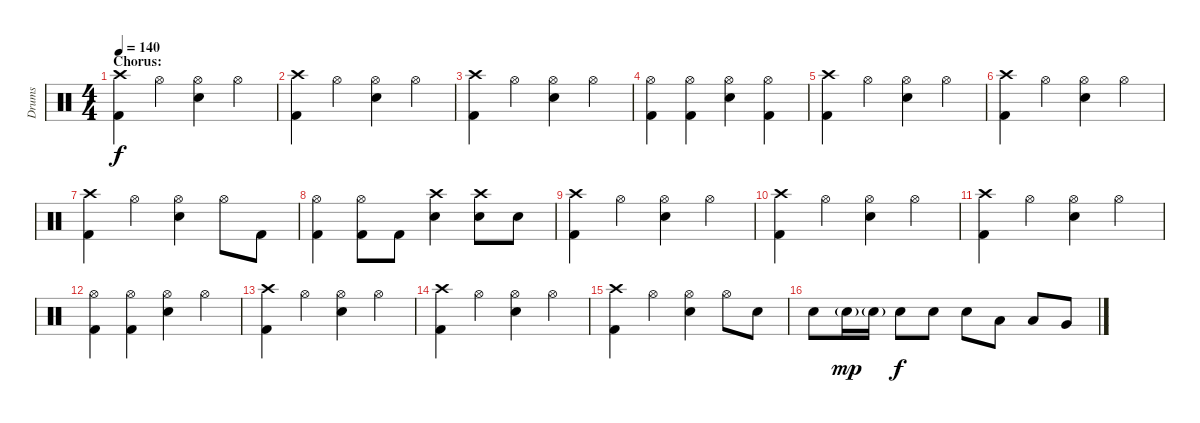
\track ("Drums" "Drums") {instrument percussion}
\staff {score}
\articulation defaults
\ts (4 4)
\section ("" "Chorus:")
\tempo 140
\clef neutral
\ks c
("Crash high (hit)" "Kick (hit) 2").4{dy f} "Hi-Hat (open)".4 ("Hi-Hat (open)" "Electric Snare (hit)").4 "Hi-Hat (open)".4 |
("Crash high (hit)" "Kick (hit) 2").4 "Hi-Hat (open)".4 ("Hi-Hat (open)" "Electric Snare (hit)").4 "Hi-Hat (open)".4 |
("Crash high (hit)" "Kick (hit) 2").4 "Hi-Hat (open)".4 ("Hi-Hat (open)" "Electric Snare (hit)").4 "Hi-Hat (open)".4 |
("Hi-Hat (open)" "Kick (hit) 2").4 ("Hi-Hat (open)" "Kick (hit) 2").4 ("Hi-Hat (open)" "Electric Snare (hit)").4 ("Hi-Hat (open)" "Kick (hit) 2").4 |
("Crash high (hit)" "Kick (hit) 2").4 "Hi-Hat (open)".4 ("Hi-Hat (open)" "Electric Snare (hit)").4 "Hi-Hat (open)".4 |
("Crash high (hit)" "Kick (hit) 2").4 "Hi-Hat (open)".4 ("Hi-Hat (open)" "Electric Snare (hit)").4 "Hi-Hat (open)".4 |
("Crash high (hit)" "Kick (hit) 2").4 "Hi-Hat (open)".4 ("Hi-Hat (open)" "Electric Snare (hit)").4 "Hi-Hat (open)".8 "Kick (hit) 2".8 |
("Hi-Hat (open)" "Kick (hit) 2").4 ("Hi-Hat (open)" "Kick (hit) 2").8 "Kick (hit) 2".8 ("Crash high (hit)" "Electric Snare (hit)").4 ("Crash high (hit)" "Electric Snare (hit)").8 "Electric Snare (hit)".8 |
("Crash high (hit)" "Kick (hit) 2").4 "Hi-Hat (open)".4 ("Hi-Hat (open)" "Electric Snare (hit)").4 "Hi-Hat (open)".4 |
("Crash high (hit)" "Kick (hit) 2").4 "Hi-Hat (open)".4 ("Hi-Hat (open)" "Electric Snare (hit)").4 "Hi-Hat (open)".4 |
("Crash high (hit)" "Kick (hit) 2").4 "Hi-Hat (open)".4 ("Hi-Hat (open)" "Electric Snare (hit)").4 "Hi-Hat (open)".4 |
("Hi-Hat (open)" "Kick (hit) 2").4 ("Hi-Hat (open)" "Kick (hit) 2").4 ("Hi-Hat (open)" "Electric Snare (hit)").4 "Hi-Hat (open)".4 |
("Crash high (hit)" "Kick (hit) 2").4 "Hi-Hat (open)".4 ("Hi-Hat (open)" "Electric Snare (hit)").4 "Hi-Hat (open)".4 |
("Crash high (hit)" "Kick (hit) 2").4 "Hi-Hat (open)".4 ("Hi-Hat (open)" "Electric Snare (hit)").4 "Hi-Hat (open)".4 |
("Crash high (hit)" "Kick (hit) 2").4 "Hi-Hat (open)".4 ("Hi-Hat (open)" "Electric Snare (hit)").4 "Hi-Hat (open)".8 "Electric Snare (hit)".8 |
"Electric Snare (hit)".8 "Electric Snare (hit)"{g}.16{dy mp} "Electric Snare (hit)"{g}.16 "Electric Snare (hit)".8{dy f} "Electric Snare (hit)".8 "Electric Snare (hit)".8 "Low Tom (hit)".8 "Low Tom (hit)".8 "Very Low Tom (hit)".8
